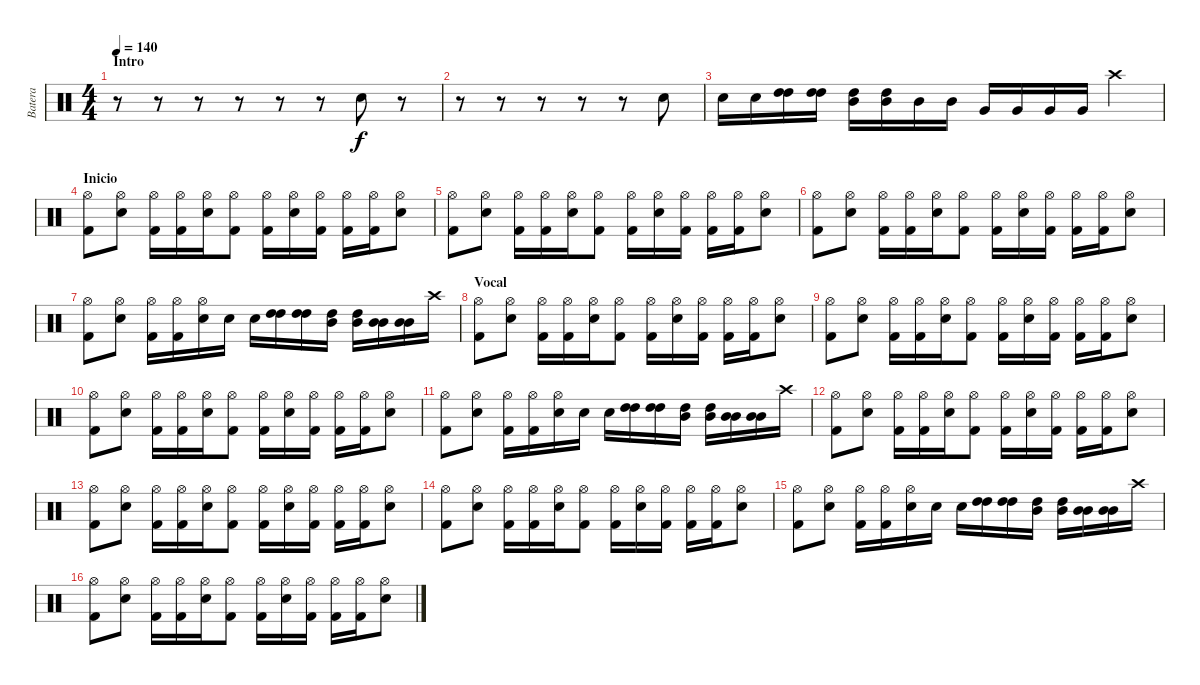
\track ("Batera" "Batera") {instrument percussion}
\staff {score}
\articulation defaults
\ts (4 4)
\section ("" "Intro")
\tempo 140
\clef neutral
\ks c
r.8{dy f} r.8 r.8 r.8 r.8 r.8 "Snare (hit) 2".8 r.8 |
r.8 r.8 r.8 r.8 r.8 "Snare (hit) 2".8 |
"Electric Snare (hit)".16 "Electric Snare (hit)".16 ("High Tom (hit)" "High Tom (hit)").16 ("High Tom (hit)" "High Tom (hit)").16 ("Mid Tom (hit)" "High Tom (hit)").16 ("Mid Tom (hit)" "High Tom (hit)").16 "Mid Tom (hit)".16 "Mid Tom (hit)".16 "Very Low Tom (hit)".16 "Very Low Tom (hit)".16 "Very Low Tom (hit)".16 "Very Low Tom (hit)".16 "Crash high (hit)".4 |
\section ("" "Inicio")
("Kick (hit) 2" "Hi-Hat (open)").8 ("Electric Snare (hit)" "Hi-Hat (open)").8 ("Kick (hit) 2" "Hi-Hat (open)").16 ("Kick (hit) 2" "Hi-Hat (open)").16 ("Electric Snare (hit)" "Hi-Hat (open)").16 ("Kick (hit) 2" "Hi-Hat (open)").8 ("Kick (hit) 2" "Hi-Hat (open)").16 ("Electric Snare (hit)" "Hi-Hat (open)").16 ("Kick (hit) 2" "Hi-Hat (open)").16 ("Kick (hit) 2" "Hi-Hat (open)").16 ("Kick (hit) 2" "Hi-Hat (open)").16 ("Electric Snare (hit)" "Hi-Hat (open)").8 |
("Kick (hit) 2" "Hi-Hat (open)").8 ("Electric Snare (hit)" "Hi-Hat (open)").8 ("Kick (hit) 2" "Hi-Hat (open)").16 ("Kick (hit) 2" "Hi-Hat (open)").16 ("Electric Snare (hit)" "Hi-Hat (open)").16 ("Kick (hit) 2" "Hi-Hat (open)").8 ("Kick (hit) 2" "Hi-Hat (open)").16 ("Electric Snare (hit)" "Hi-Hat (open)").16 ("Kick (hit) 2" "Hi-Hat (open)").16 ("Kick (hit) 2" "Hi-Hat (open)").16 ("Kick (hit) 2" "Hi-Hat (open)").16 ("Electric Snare (hit)" "Hi-Hat (open)").8 |
("Kick (hit) 2" "Hi-Hat (open)").8 ("Electric Snare (hit)" "Hi-Hat (open)").8 ("Kick (hit) 2" "Hi-Hat (open)").16 ("Kick (hit) 2" "Hi-Hat (open)").16 ("Electric Snare (hit)" "Hi-Hat (open)").16 ("Kick (hit) 2" "Hi-Hat (open)").8 ("Kick (hit) 2" "Hi-Hat (open)").16 ("Electric Snare (hit)" "Hi-Hat (open)").16 ("Kick (hit) 2" "Hi-Hat (open)").16 ("Kick (hit) 2" "Hi-Hat (open)").16 ("Kick (hit) 2" "Hi-Hat (open)").16 ("Electric Snare (hit)" "Hi-Hat (open)").8 |
("Kick (hit) 2" "Hi-Hat (open)").8 ("Electric Snare (hit)" "Hi-Hat (open)").8 ("Kick (hit) 2" "Hi-Hat (open)").16 ("Kick (hit) 2" "Hi-Hat (open)").16 ("Electric Snare (hit)" "Hi-Hat (open)").16 "Electric Snare (hit)".16 "Electric Snare (hit)".16 ("High Tom (hit)" "High Tom (hit)").16 ("High Tom (hit)" "High Tom (hit)").16 ("Mid Tom (hit)" "High Tom (hit)").16 ("Mid Tom (hit)" "High Tom (hit)").16 ("Mid Tom (hit)" "Mid Tom (hit)").16 ("Mid Tom (hit)" "Mid Tom (hit)").16 "Crash high (hit)".16 |
\section ("" "Vocal")
("Kick (hit) 2" "Hi-Hat (open)").8 ("Electric Snare (hit)" "Hi-Hat (open)").8 ("Kick (hit) 2" "Hi-Hat (open)").16 ("Kick (hit) 2" "Hi-Hat (open)").16 ("Electric Snare (hit)" "Hi-Hat (open)").16 ("Kick (hit) 2" "Hi-Hat (open)").8 ("Kick (hit) 2" "Hi-Hat (open)").16 ("Electric Snare (hit)" "Hi-Hat (open)").16 ("Kick (hit) 2" "Hi-Hat (open)").16 ("Kick (hit) 2" "Hi-Hat (open)").16 ("Kick (hit) 2" "Hi-Hat (open)").16 ("Electric Snare (hit)" "Hi-Hat (open)").8 |
("Kick (hit) 2" "Hi-Hat (open)").8 ("Electric Snare (hit)" "Hi-Hat (open)").8 ("Kick (hit) 2" "Hi-Hat (open)").16 ("Kick (hit) 2" "Hi-Hat (open)").16 ("Electric Snare (hit)" "Hi-Hat (open)").16 ("Kick (hit) 2" "Hi-Hat (open)").8 ("Kick (hit) 2" "Hi-Hat (open)").16 ("Electric Snare (hit)" "Hi-Hat (open)").16 ("Kick (hit) 2" "Hi-Hat (open)").16 ("Kick (hit) 2" "Hi-Hat (open)").16 ("Kick (hit) 2" "Hi-Hat (open)").16 ("Electric Snare (hit)" "Hi-Hat (open)").8 |
("Kick (hit) 2" "Hi-Hat (open)").8 ("Electric Snare (hit)" "Hi-Hat (open)").8 ("Kick (hit) 2" "Hi-Hat (open)").16 ("Kick (hit) 2" "Hi-Hat (open)").16 ("Electric Snare (hit)" "Hi-Hat (open)").16 ("Kick (hit) 2" "Hi-Hat (open)").8 ("Kick (hit) 2" "Hi-Hat (open)").16 ("Electric Snare (hit)" "Hi-Hat (open)").16 ("Kick (hit) 2" "Hi-Hat (open)").16 ("Kick (hit) 2" "Hi-Hat (open)").16 ("Kick (hit) 2" "Hi-Hat (open)").16 ("Electric Snare (hit)" "Hi-Hat (open)").8 |
("Kick (hit) 2" "Hi-Hat (open)").8 ("Electric Snare (hit)" "Hi-Hat (open)").8 ("Kick (hit) 2" "Hi-Hat (open)").16 ("Kick (hit) 2" "Hi-Hat (open)").16 ("Electric Snare (hit)" "Hi-Hat (open)").16 "Electric Snare (hit)".16 "Electric Snare (hit)".16 ("High Tom (hit)" "High Tom (hit)").16 ("High Tom (hit)" "High Tom (hit)").16 ("Mid Tom (hit)" "High Tom (hit)").16 ("Mid Tom (hit)" "High Tom (hit)").16 ("Mid Tom (hit)" "Mid Tom (hit)").16 ("Mid Tom (hit)" "Mid Tom (hit)").16 "Crash high (hit)".16 |
("Kick (hit) 2" "Hi-Hat (open)").8 ("Electric Snare (hit)" "Hi-Hat (open)").8 ("Kick (hit) 2" "Hi-Hat (open)").16 ("Kick (hit) 2" "Hi-Hat (open)").16 ("Electric Snare (hit)" "Hi-Hat (open)").16 ("Kick (hit) 2" "Hi-Hat (open)").8 ("Kick (hit) 2" "Hi-Hat (open)").16 ("Electric Snare (hit)" "Hi-Hat (open)").16 ("Kick (hit) 2" "Hi-Hat (open)").16 ("Kick (hit) 2" "Hi-Hat (open)").16 ("Kick (hit) 2" "Hi-Hat (open)").16 ("Electric Snare (hit)" "Hi-Hat (open)").8 |
("Kick (hit) 2" "Hi-Hat (open)").8 ("Electric Snare (hit)" "Hi-Hat (open)").8 ("Kick (hit) 2" "Hi-Hat (open)").16 ("Kick (hit) 2" "Hi-Hat (open)").16 ("Electric Snare (hit)" "Hi-Hat (open)").16 ("Kick (hit) 2" "Hi-Hat (open)").8 ("Kick (hit) 2" "Hi-Hat (open)").16 ("Electric Snare (hit)" "Hi-Hat (open)").16 ("Kick (hit) 2" "Hi-Hat (open)").16 ("Kick (hit) 2" "Hi-Hat (open)").16 ("Kick (hit) 2" "Hi-Hat (open)").16 ("Electric Snare (hit)" "Hi-Hat (open)").8 |
("Kick (hit) 2" "Hi-Hat (open)").8 ("Electric Snare (hit)" "Hi-Hat (open)").8 ("Kick (hit) 2" "Hi-Hat (open)").16 ("Kick (hit) 2" "Hi-Hat (open)").16 ("Electric Snare (hit)" "Hi-Hat (open)").16 ("Kick (hit) 2" "Hi-Hat (open)").8 ("Kick (hit) 2" "Hi-Hat (open)").16 ("Electric Snare (hit)" "Hi-Hat (open)").16 ("Kick (hit) 2" "Hi-Hat (open)").16 ("Kick (hit) 2" "Hi-Hat (open)").16 ("Kick (hit) 2" "Hi-Hat (open)").16 ("Electric Snare (hit)" "Hi-Hat (open)").8 |
("Kick (hit) 2" "Hi-Hat (open)").8 ("Electric Snare (hit)" "Hi-Hat (open)").8 ("Kick (hit) 2" "Hi-Hat (open)").16 ("Kick (hit) 2" "Hi-Hat (open)").16 ("Electric Snare (hit)" "Hi-Hat (open)").16 "Electric Snare (hit)".16 "Electric Snare (hit)".16 ("High Tom (hit)" "High Tom (hit)").16 ("High Tom (hit)" "High Tom (hit)").16 ("Mid Tom (hit)" "High Tom (hit)").16 ("Mid Tom (hit)" "High Tom (hit)").16 ("Mid Tom (hit)" "Mid Tom (hit)").16 ("Mid Tom (hit)" "Mid Tom (hit)").16 "Crash high (hit)".16 |
("Kick (hit) 2" "Hi-Hat (open)").8 ("Electric Snare (hit)" "Hi-Hat (open)").8 ("Kick (hit) 2" "Hi-Hat (open)").16 ("Kick (hit) 2" "Hi-Hat (open)").16 ("Electric Snare (hit)" "Hi-Hat (open)").16 ("Kick (hit) 2" "Hi-Hat (open)").8 ("Kick (hit) 2" "Hi-Hat (open)").16 ("Electric Snare (hit)" "Hi-Hat (open)").16 ("Kick (hit) 2" "Hi-Hat (open)").16 ("Kick (hit) 2" "Hi-Hat (open)").16 ("Kick (hit) 2" "Hi-Hat (open)").16 ("Electric Snare (hit)" "Hi-Hat (open)").8
